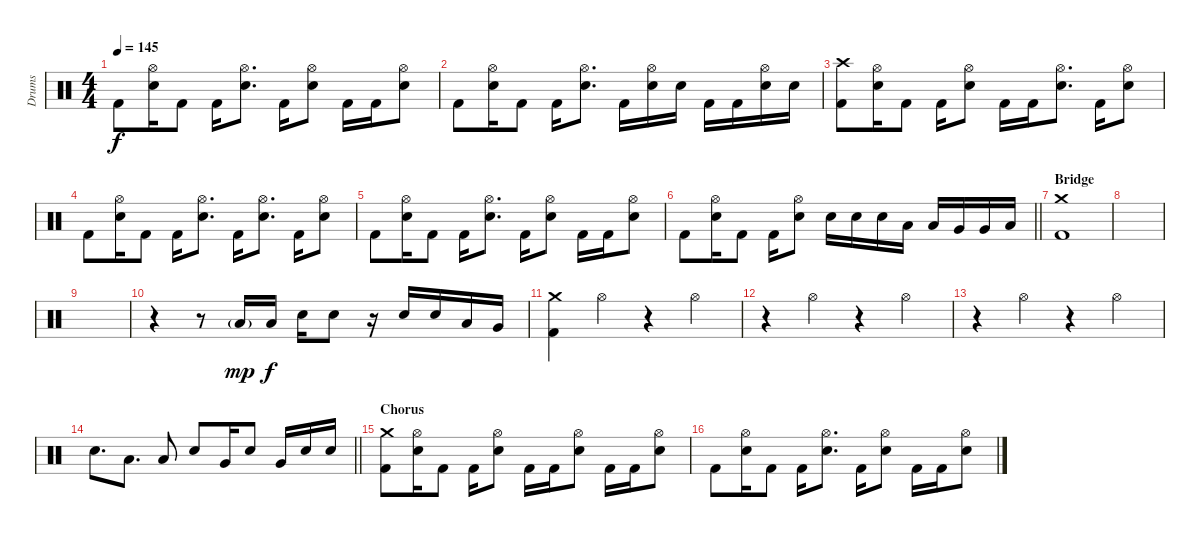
\track ("Drums" "Drums") {instrument percussion}
\staff {score}
\articulation defaults
\ts (4 4)
\tempo 145
\clef neutral
\ks c "Kick (hit) 2".8{dy f}
("Hi-Hat (open)" "Electric Snare (hit)").16 "Kick (hit) 2".8 "Kick (hit) 2".16 ("Hi-Hat (open)" "Electric Snare (hit)").8{d} "Kick (hit) 2".16 ("Hi-Hat (open)" "Electric Snare (hit)").8 "Kick (hit) 2".16 "Kick (hit) 2".16 ("Hi-Hat (open)" "Electric Snare (hit)").8 |
"Kick (hit) 2".8 ("Hi-Hat (open)" "Electric Snare (hit)").16 "Kick (hit) 2".8 "Kick (hit) 2".16 ("Hi-Hat (open)" "Electric Snare (hit)").8{d} "Kick (hit) 2".16 ("Hi-Hat (open)" "Electric Snare (hit)").16 "Electric Snare (hit)".16 "Kick (hit) 2".16 "Kick (hit) 2".16 ("Hi-Hat (open)" "Electric Snare (hit)").16 "Electric Snare (hit)".16 |
("Crash high (hit)" "Kick (hit) 2").8 ("Hi-Hat (open)" "Electric Snare (hit)").16 "Kick (hit) 2".8 "Kick (hit) 2".16 ("Hi-Hat (open)" "Electric Snare (hit)").8 "Kick (hit) 2".16 "Kick (hit) 2".16 ("Hi-Hat (open)" "Electric Snare (hit)").8{d} "Kick (hit) 2".16 ("Hi-Hat (open)" "Electric Snare (hit)").8 |
"Kick (hit) 2".8 ("Hi-Hat (open)" "Electric Snare (hit)").16 "Kick (hit) 2".8 "Kick (hit) 2".16 ("Hi-Hat (open)" "Electric Snare (hit)").8{d} "Kick (hit) 2".16 ("Hi-Hat (open)" "Electric Snare (hit)").8{d} "Kick (hit) 2".16 ("Hi-Hat (open)" "Electric Snare (hit)").8 |
"Kick (hit) 2".8 ("Hi-Hat (open)" "Electric Snare (hit)").16 "Kick (hit) 2".8 "Kick (hit) 2".16 ("Hi-Hat (open)" "Electric Snare (hit)").8{d} "Kick (hit) 2".16 ("Hi-Hat (open)" "Electric Snare (hit)").8 "Kick (hit) 2".16 "Kick (hit) 2".16 ("Hi-Hat (open)" "Electric Snare (hit)").8 |
\barLineRight lightlight "Kick (hit) 2".8
("Hi-Hat (open)" "Electric Snare (hit)").16 "Kick (hit) 2".8 "Kick (hit) 2".16 ("Hi-Hat (open)" "Electric Snare (hit)").8 "Electric Snare (hit)".16 "Electric Snare (hit)".16 "Electric Snare (hit)".16 "Low Tom (hit)".16 "Low Tom (hit)".16 "Very Low Tom (hit)".16 "Very Low Tom (hit)".16 "Low Floor Tom (hit)".16 |
\section ("" "Bridge")
("Crash medium (hit)" "Kick (hit) 2").1 |
|
|
r.4 r.8 "Low Tom (hit)"{g}.16{dy mp} "Low Tom (hit)".16{dy f} "Electric Snare (hit)".16 "Electric Snare (hit)".8 r.16 "Electric Snare (hit)".16 "Electric Snare (hit)".16 "Low Tom (hit)".16 "Very Low Tom (hit)".16 |
("Crash medium (hit)" "Kick (hit) 2").4 "Hi-Hat (open)".4 r.4 "Hi-Hat (open)".4 |
r.4 "Hi-Hat (open)".4 r.4 "Hi-Hat (open)".4 |
r.4 "Hi-Hat (open)".4 r.4 "Hi-Hat (open)".4 |
\barLineRight lightlight "Electric Snare (hit)".8{d} "Low Tom (hit)".8{d} "Low Floor Tom (hit)".8 "Electric Snare (hit)".8 "Very Low Tom (hit)".16 "Electric Snare (hit)".8 "Very Low Tom (hit)".16 "Electric Snare (hit)".16 "Electric Snare (hit)".16
|
\section ("" "Chorus")
("Crash medium (hit)" "Kick (hit) 2").8 ("Hi-Hat (open)" "Electric Snare (hit)").16 "Kick (hit) 2".8 "Kick (hit) 2".16 ("Hi-Hat (open)" "Electric Snare (hit)").8 "Kick (hit) 2".16 "Kick (hit) 2".16 ("Hi-Hat (open)" "Electric Snare (hit)").8 "Kick (hit) 2".16 "Kick (hit) 2".16 ("Hi-Hat (open)" "Electric Snare (hit)").8 |
"Kick (hit) 2".8 ("Hi-Hat (open)" "Electric Snare (hit)").16 "Kick (hit) 2".8 "Kick (hit) 2".16 ("Hi-Hat (open)" "Electric Snare (hit)").8{d} "Kick (hit) 2".16 ("Hi-Hat (open)" "Electric Snare (hit)").8 "Kick (hit) 2".16 "Kick (hit) 2".16 ("Hi-Hat (open)" "Electric Snare (hit)").8
